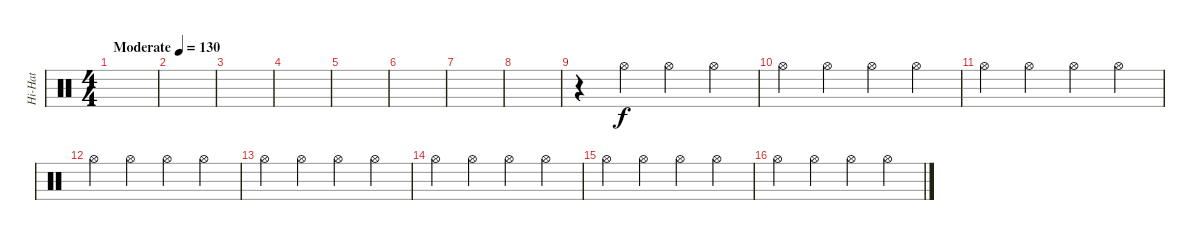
\track ("Hi-Hat" "Hi-Hat") {instrument percussion}
\staff {score}
\articulation defaults
\ts (4 4)
\tempo (130 "Moderate")
\clef neutral
\ks c
|
|
|
|
|
|
|
|
r.4 "Hi-Hat (open)".4 "Hi-Hat (open)".4 "Hi-Hat (open)".4 |
"Hi-Hat (open)".4 "Hi-Hat (open)".4 "Hi-Hat (open)".4 "Hi-Hat (open)".4 |
"Hi-Hat (open)".4 "Hi-Hat (open)".4 "Hi-Hat (open)".4 "Hi-Hat (open)".4 |
"Hi-Hat (open)".4 "Hi-Hat (open)".4 "Hi-Hat (open)".4 "Hi-Hat (open)".4 |
"Hi-Hat (open)".4 "Hi-Hat (open)".4 "Hi-Hat (open)".4 "Hi-Hat (open)".4 |
"Hi-Hat (open)".4 "Hi-Hat (open)".4 "Hi-Hat (open)".4 "Hi-Hat (open)".4 |
"Hi-Hat (open)".4 "Hi-Hat (open)".4 "Hi-Hat (open)".4 "Hi-Hat (open)".4 |
"Hi-Hat (open)".4 "Hi-Hat (open)".4 "Hi-Hat (open)".4 "Hi-Hat (open)".4
